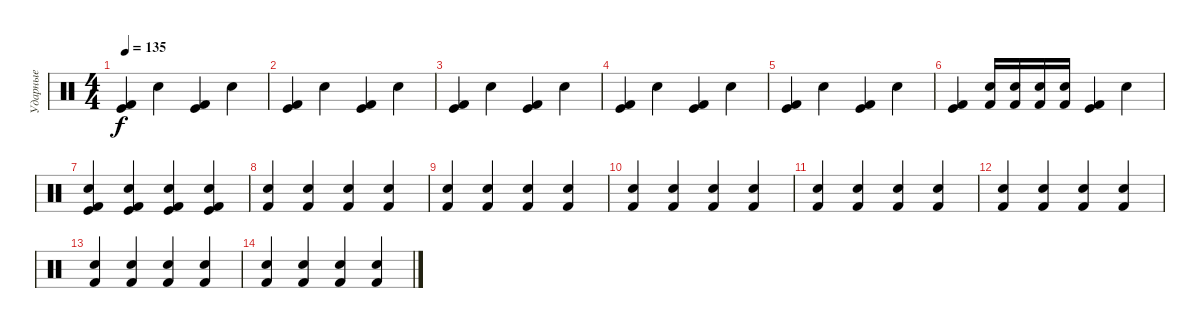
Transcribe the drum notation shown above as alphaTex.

\track ("Ударные" "Ударные") {instrument percussion}
\staff {score}
\articulation defaults
\ts (4 4)
\tempo 135
\clef neutral
\ks c
("Kick (hit) 2" "Kick (hit)").4{dy f} "Electric Snare (hit)".4 ("Kick (hit) 2" "Kick (hit)").4 "Electric Snare (hit)".4 |
("Kick (hit) 2" "Kick (hit)").4 "Electric Snare (hit)".4 ("Kick (hit) 2" "Kick (hit)").4 "Electric Snare (hit)".4 |
("Kick (hit) 2" "Kick (hit)").4 "Electric Snare (hit)".4 ("Kick (hit) 2" "Kick (hit)").4 "Electric Snare (hit)".4 |
("Kick (hit) 2" "Kick (hit)").4 "Electric Snare (hit)".4 ("Kick (hit) 2" "Kick (hit)").4 "Electric Snare (hit)".4 |
("Kick (hit) 2" "Kick (hit)").4 "Electric Snare (hit)".4 ("Kick (hit) 2" "Kick (hit)").4 "Electric Snare (hit)".4 |
("Kick (hit) 2" "Kick (hit)").4 ("Electric Snare (hit)" "Kick (hit) 2").16 ("Electric Snare (hit)" "Kick (hit) 2").16 ("Electric Snare (hit)" "Kick (hit) 2").16 ("Electric Snare (hit)" "Kick (hit) 2").16 ("Kick (hit) 2" "Kick (hit)").4 "Electric Snare (hit)".4 |
("Kick (hit)" "Kick (hit) 2" "Electric Snare (hit)").4 ("Kick (hit)" "Kick (hit) 2" "Electric Snare (hit)").4 ("Kick (hit)" "Kick (hit) 2" "Electric Snare (hit)").4 ("Kick (hit)" "Kick (hit) 2" "Electric Snare (hit)").4 |
("Kick (hit) 2" "Electric Snare (hit)").4 ("Kick (hit) 2" "Electric Snare (hit)").4 ("Kick (hit) 2" "Electric Snare (hit)").4 ("Kick (hit) 2" "Electric Snare (hit)").4 |
("Kick (hit) 2" "Electric Snare (hit)").4 ("Kick (hit) 2" "Electric Snare (hit)").4 ("Kick (hit) 2" "Electric Snare (hit)").4 ("Kick (hit) 2" "Electric Snare (hit)").4 |
("Kick (hit) 2" "Electric Snare (hit)").4 ("Kick (hit) 2" "Electric Snare (hit)").4 ("Kick (hit) 2" "Electric Snare (hit)").4 ("Kick (hit) 2" "Electric Snare (hit)").4 |
("Kick (hit) 2" "Electric Snare (hit)").4 ("Kick (hit) 2" "Electric Snare (hit)").4 ("Kick (hit) 2" "Electric Snare (hit)").4 ("Kick (hit) 2" "Electric Snare (hit)").4 |
("Kick (hit) 2" "Electric Snare (hit)").4 ("Kick (hit) 2" "Electric Snare (hit)").4 ("Kick (hit) 2" "Electric Snare (hit)").4 ("Kick (hit) 2" "Electric Snare (hit)").4 |
("Kick (hit) 2" "Electric Snare (hit)").4 ("Kick (hit) 2" "Electric Snare (hit)").4 ("Kick (hit) 2" "Electric Snare (hit)").4 ("Kick (hit) 2" "Electric Snare (hit)").4 |
("Kick (hit) 2" "Electric Snare (hit)").4 ("Kick (hit) 2" "Electric Snare (hit)").4 ("Kick (hit) 2" "Electric Snare (hit)").4 ("Kick (hit) 2" "Electric Snare (hit)").4
